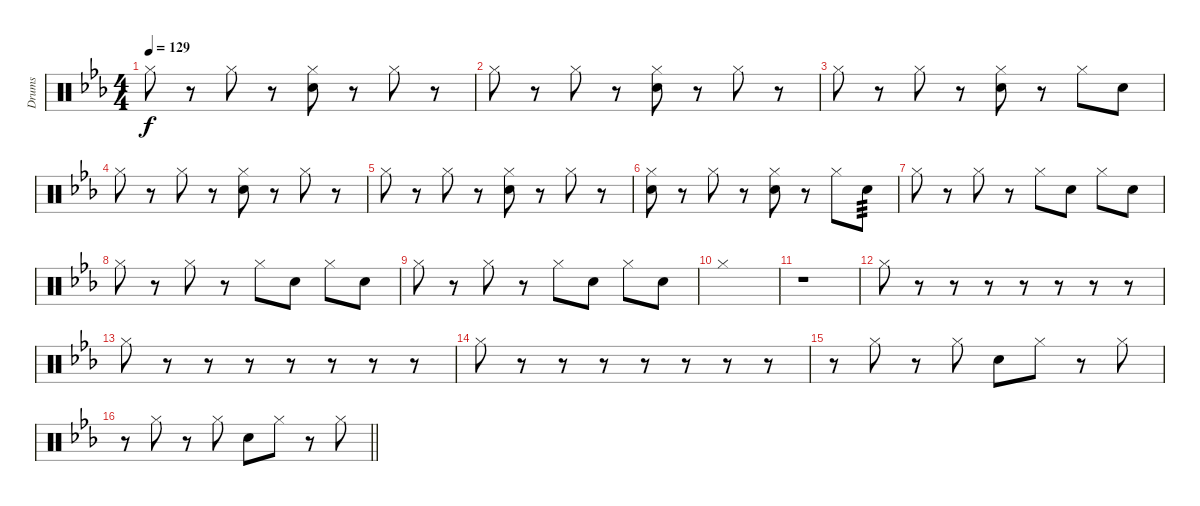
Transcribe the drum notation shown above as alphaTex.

\track ("Drums" "Drums") {instrument percussion}
\staff {score}
\articulation defaults
\ts (4 4)
\tempo 129
\clef neutral
\ks eb "Hi-Hat (closed)".8{dy f}
r.8 "Hi-Hat (closed)".8 r.8 ("Hi-Hat (closed)" "Snare (hit) 2").8 r.8 "Hi-Hat (closed)".8 r.8 |
"Hi-Hat (closed)".8 r.8 "Hi-Hat (closed)".8 r.8 ("Hi-Hat (closed)" "Snare (hit) 2").8 r.8 "Hi-Hat (closed)".8 r.8 |
"Hi-Hat (closed)".8 r.8 "Hi-Hat (closed)".8 r.8 ("Hi-Hat (closed)" "Snare (hit) 2").8 r.8 "Hi-Hat (closed)".8 "Snare (hit) 2".8 |
"Hi-Hat (closed)".8 r.8 "Hi-Hat (closed)".8 r.8 ("Hi-Hat (closed)" "Snare (hit) 2").8 r.8 "Hi-Hat (closed)".8 r.8 |
"Hi-Hat (closed)".8 r.8 "Hi-Hat (closed)".8 r.8 ("Hi-Hat (closed)" "Snare (hit) 2").8 r.8 "Hi-Hat (closed)".8 r.8 |
("Hi-Hat (closed)" "Snare (hit) 2").8 r.8 "Hi-Hat (closed)".8 r.8 ("Hi-Hat (closed)" "Snare (hit) 2").8 r.8 "Hi-Hat (closed)".8 "Snare (hit) 2".8{tp 3} |
"Hi-Hat (closed)".8 r.8 "Hi-Hat (closed)".8 r.8 "Hi-Hat (closed)".8 "Snare (hit) 2".8 "Hi-Hat (closed)".8 "Snare (hit) 2".8 |
"Hi-Hat (closed)".8 r.8 "Hi-Hat (closed)".8 r.8 "Hi-Hat (closed)".8 "Snare (hit) 2".8 "Hi-Hat (closed)".8 "Snare (hit) 2".8 |
"Hi-Hat (closed)".8 r.8 "Hi-Hat (closed)".8 r.8 "Hi-Hat (closed)".8 "Snare (hit) 2".8 "Hi-Hat (closed)".8 "Snare (hit) 2".8 |
"Hi-Hat (closed)".1 |
r.1 |
"Hi-Hat (closed)".8 r.8 r.8 r.8 r.8 r.8 r.8 r.8 |
"Hi-Hat (closed)".8 r.8 r.8 r.8 r.8 r.8 r.8 r.8 |
"Hi-Hat (closed)".8 r.8 r.8 r.8 r.8 r.8 r.8 r.8 |
r.8 "Hi-Hat (closed)".8 r.8 "Hi-Hat (closed)".8 "Snare (hit) 2".8 "Hi-Hat (closed)".8 r.8 "Hi-Hat (closed)".8 |
\barLineRight lightlight
r.8 "Hi-Hat (closed)".8 r.8 "Hi-Hat (closed)".8 "Snare (hit) 2".8 "Hi-Hat (closed)".8 r.8 "Hi-Hat (closed)".8
